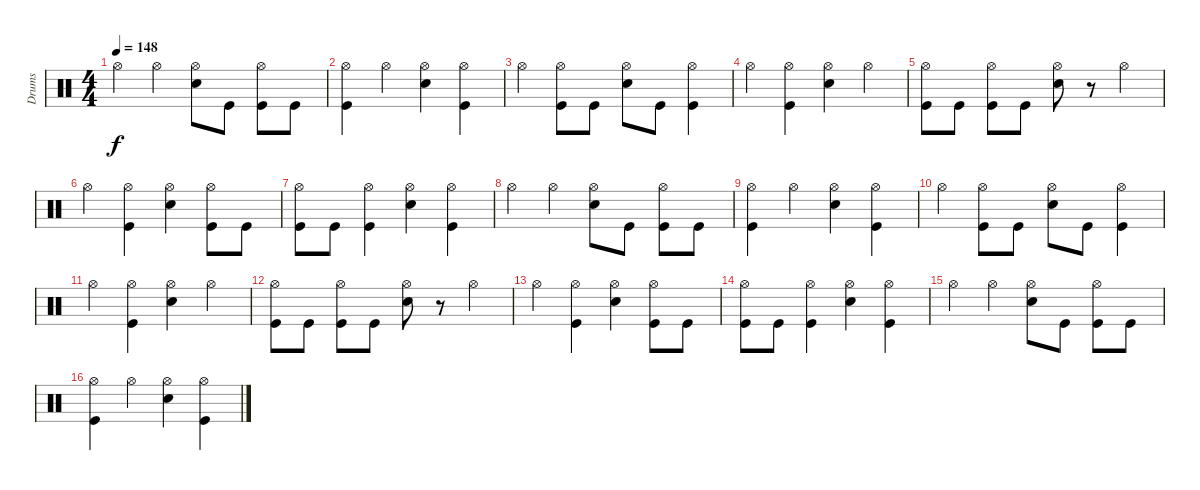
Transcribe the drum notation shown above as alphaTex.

\track ("Drums" "Drums") {instrument percussion}
\staff {score}
\articulation defaults
\ts (4 4)
\tempo 148
\clef neutral
\ks c "Hi-Hat (open)".4{dy f} "Hi-Hat (open)".4
("Hi-Hat (open)" "Snare (hit) 2").8 "Kick (hit)".8 ("Hi-Hat (open)" "Kick (hit)").8 "Kick (hit)".8 |
("Hi-Hat (open)" "Kick (hit)").4 "Hi-Hat (open)".4 ("Hi-Hat (open)" "Snare (hit) 2").4 ("Hi-Hat (open)" "Kick (hit)").4 |
"Hi-Hat (open)".4 ("Hi-Hat (open)" "Kick (hit)").8 "Kick (hit)".8 ("Hi-Hat (open)" "Snare (hit) 2").8 "Kick (hit)".8 ("Hi-Hat (open)" "Kick (hit)").4 |
"Hi-Hat (open)".4 ("Hi-Hat (open)" "Kick (hit)").4 ("Hi-Hat (open)" "Snare (hit) 2").4 "Hi-Hat (open)".4 |
("Hi-Hat (open)" "Kick (hit)").8 "Kick (hit)".8 ("Hi-Hat (open)" "Kick (hit)").8 "Kick (hit)".8 ("Hi-Hat (open)" "Snare (hit) 2").8 r.8 "Hi-Hat (open)".4 |
"Hi-Hat (open)".4 ("Hi-Hat (open)" "Kick (hit)").4 ("Hi-Hat (open)" "Snare (hit) 2").4 ("Hi-Hat (open)" "Kick (hit)").8 "Kick (hit)".8 |
("Hi-Hat (open)" "Kick (hit)").8 "Kick (hit)".8 ("Hi-Hat (open)" "Kick (hit)").4 ("Hi-Hat (open)" "Snare (hit) 2").4 ("Hi-Hat (open)" "Kick (hit)").4 |
"Hi-Hat (open)".4 "Hi-Hat (open)".4 ("Hi-Hat (open)" "Snare (hit) 2").8 "Kick (hit)".8 ("Hi-Hat (open)" "Kick (hit)").8 "Kick (hit)".8 |
("Hi-Hat (open)" "Kick (hit)").4 "Hi-Hat (open)".4 ("Hi-Hat (open)" "Snare (hit) 2").4 ("Hi-Hat (open)" "Kick (hit)").4 |
"Hi-Hat (open)".4 ("Hi-Hat (open)" "Kick (hit)").8 "Kick (hit)".8 ("Hi-Hat (open)" "Snare (hit) 2").8 "Kick (hit)".8 ("Hi-Hat (open)" "Kick (hit)").4 |
"Hi-Hat (open)".4 ("Hi-Hat (open)" "Kick (hit)").4 ("Hi-Hat (open)" "Snare (hit) 2").4 "Hi-Hat (open)".4 |
("Hi-Hat (open)" "Kick (hit)").8 "Kick (hit)".8 ("Hi-Hat (open)" "Kick (hit)").8 "Kick (hit)".8 ("Hi-Hat (open)" "Snare (hit) 2").8 r.8 "Hi-Hat (open)".4 |
"Hi-Hat (open)".4 ("Hi-Hat (open)" "Kick (hit)").4 ("Hi-Hat (open)" "Snare (hit) 2").4 ("Hi-Hat (open)" "Kick (hit)").8 "Kick (hit)".8 |
("Hi-Hat (open)" "Kick (hit)").8 "Kick (hit)".8 ("Hi-Hat (open)" "Kick (hit)").4 ("Hi-Hat (open)" "Snare (hit) 2").4 ("Hi-Hat (open)" "Kick (hit)").4 |
"Hi-Hat (open)".4 "Hi-Hat (open)".4 ("Hi-Hat (open)" "Snare (hit) 2").8 "Kick (hit)".8 ("Hi-Hat (open)" "Kick (hit)").8 "Kick (hit)".8 |
("Hi-Hat (open)" "Kick (hit)").4 "Hi-Hat (open)".4 ("Hi-Hat (open)" "Snare (hit) 2").4 ("Hi-Hat (open)" "Kick (hit)").4
